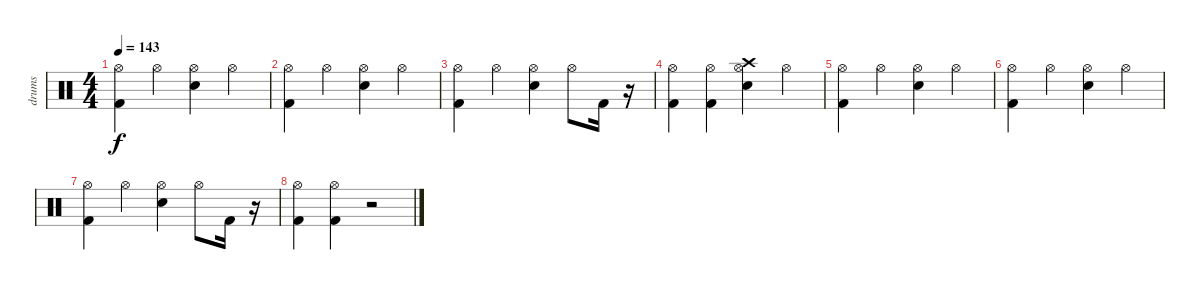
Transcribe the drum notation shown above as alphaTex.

\track ("drums" "drums") {instrument percussion}
\staff {score}
\articulation defaults
\ts (4 4)
\tempo 143
\clef neutral
\ks c
("Hi-Hat (open)" "Kick (hit) 2").4{dy f} "Hi-Hat (open)".4 ("Electric Snare (hit)" "Hi-Hat (open)").4 "Hi-Hat (open)".4 |
("Kick (hit) 2" "Hi-Hat (open)").4 "Hi-Hat (open)".4 ("Electric Snare (hit)" "Hi-Hat (open)").4 "Hi-Hat (open)".4 |
("Hi-Hat (open)" "Kick (hit) 2").4 "Hi-Hat (open)".4 ("Electric Snare (hit)" "Hi-Hat (open)").4 "Hi-Hat (open)".8 "Kick (hit) 2".16 r.16 |
("Kick (hit) 2" "Hi-Hat (open)").4 ("Kick (hit) 2" "Hi-Hat (open)").4 ("Crash high (hit)" "Electric Snare (hit)" "Hi-Hat (open)").4 "Hi-Hat (open)".4 |
("Hi-Hat (open)" "Kick (hit) 2").4 "Hi-Hat (open)".4 ("Electric Snare (hit)" "Hi-Hat (open)").4 "Hi-Hat (open)".4 |
("Kick (hit) 2" "Hi-Hat (open)").4 "Hi-Hat (open)".4 ("Electric Snare (hit)" "Hi-Hat (open)").4 "Hi-Hat (open)".4 |
("Hi-Hat (open)" "Kick (hit) 2").4 "Hi-Hat (open)".4 ("Electric Snare (hit)" "Hi-Hat (open)").4 "Hi-Hat (open)".8 "Kick (hit) 2".16 r.16 |
("Kick (hit) 2" "Hi-Hat (open)").4 ("Kick (hit) 2" "Hi-Hat (open)").4 r.2
